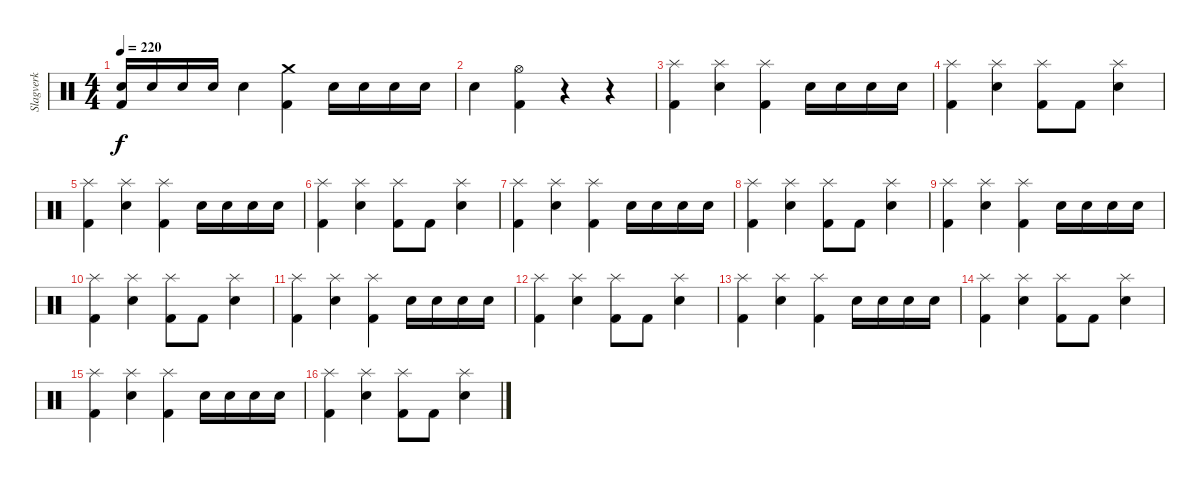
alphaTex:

\track ("Slagverk" "Slagverk") {instrument percussion}
\staff {score}
\articulation defaults
\ts (4 4)
\tempo 220
\clef neutral
\ks c
("Electric Snare (hit)" "Kick (hit) 2").16{dy f} "Electric Snare (hit)".16 "Electric Snare (hit)".16 "Electric Snare (hit)".16 "Electric Snare (hit)".4 ("Kick (hit) 2" "Crash medium (hit)").4 "Electric Snare (hit)".16 "Electric Snare (hit)".16 "Electric Snare (hit)".16 "Electric Snare (hit)".16 |
"Electric Snare (hit)".4 ("Hi-Hat (open)" "Kick (hit) 2").4 r.4 r.4 |
("Kick (hit) 2" "Splash (hit)").4 ("Electric Snare (hit)" "Splash (hit)").4 ("Kick (hit) 2" "Splash (hit)").4 "Electric Snare (hit)".16 "Electric Snare (hit)".16 "Electric Snare (hit)".16 "Electric Snare (hit)".16 |
("Kick (hit) 2" "Splash (hit)").4 ("Electric Snare (hit)" "Splash (hit)").4 ("Kick (hit) 2" "Splash (hit)").8 "Kick (hit) 2".8 ("Electric Snare (hit)" "Splash (hit)").4 |
("Kick (hit) 2" "Splash (hit)").4 ("Electric Snare (hit)" "Splash (hit)").4 ("Kick (hit) 2" "Splash (hit)").4 "Electric Snare (hit)".16 "Electric Snare (hit)".16 "Electric Snare (hit)".16 "Electric Snare (hit)".16 |
("Kick (hit) 2" "Splash (hit)").4 ("Electric Snare (hit)" "Splash (hit)").4 ("Kick (hit) 2" "Splash (hit)").8 "Kick (hit) 2".8 ("Electric Snare (hit)" "Splash (hit)").4 |
("Kick (hit) 2" "Splash (hit)").4 ("Electric Snare (hit)" "Splash (hit)").4 ("Kick (hit) 2" "Splash (hit)").4 "Electric Snare (hit)".16 "Electric Snare (hit)".16 "Electric Snare (hit)".16 "Electric Snare (hit)".16 |
("Kick (hit) 2" "Splash (hit)").4 ("Electric Snare (hit)" "Splash (hit)").4 ("Kick (hit) 2" "Splash (hit)").8 "Kick (hit) 2".8 ("Electric Snare (hit)" "Splash (hit)").4 |
("Kick (hit) 2" "Splash (hit)").4 ("Electric Snare (hit)" "Splash (hit)").4 ("Kick (hit) 2" "Splash (hit)").4 "Electric Snare (hit)".16 "Electric Snare (hit)".16 "Electric Snare (hit)".16 "Electric Snare (hit)".16 |
("Kick (hit) 2" "Splash (hit)").4 ("Electric Snare (hit)" "Splash (hit)").4 ("Kick (hit) 2" "Splash (hit)").8 "Kick (hit) 2".8 ("Electric Snare (hit)" "Splash (hit)").4 |
("Kick (hit) 2" "Splash (hit)").4 ("Electric Snare (hit)" "Splash (hit)").4 ("Kick (hit) 2" "Splash (hit)").4 "Electric Snare (hit)".16 "Electric Snare (hit)".16 "Electric Snare (hit)".16 "Electric Snare (hit)".16 |
("Kick (hit) 2" "Splash (hit)").4 ("Electric Snare (hit)" "Splash (hit)").4 ("Kick (hit) 2" "Splash (hit)").8 "Kick (hit) 2".8 ("Electric Snare (hit)" "Splash (hit)").4 |
("Kick (hit) 2" "Splash (hit)").4 ("Electric Snare (hit)" "Splash (hit)").4 ("Kick (hit) 2" "Splash (hit)").4 "Electric Snare (hit)".16 "Electric Snare (hit)".16 "Electric Snare (hit)".16 "Electric Snare (hit)".16 |
("Kick (hit) 2" "Splash (hit)").4 ("Electric Snare (hit)" "Splash (hit)").4 ("Kick (hit) 2" "Splash (hit)").8 "Kick (hit) 2".8 ("Electric Snare (hit)" "Splash (hit)").4 |
("Kick (hit) 2" "Splash (hit)").4 ("Electric Snare (hit)" "Splash (hit)").4 ("Kick (hit) 2" "Splash (hit)").4 "Electric Snare (hit)".16 "Electric Snare (hit)".16 "Electric Snare (hit)".16 "Electric Snare (hit)".16 |
("Kick (hit) 2" "Splash (hit)").4 ("Electric Snare (hit)" "Splash (hit)").4 ("Kick (hit) 2" "Splash (hit)").8 "Kick (hit) 2".8 ("Electric Snare (hit)" "Splash (hit)").4
